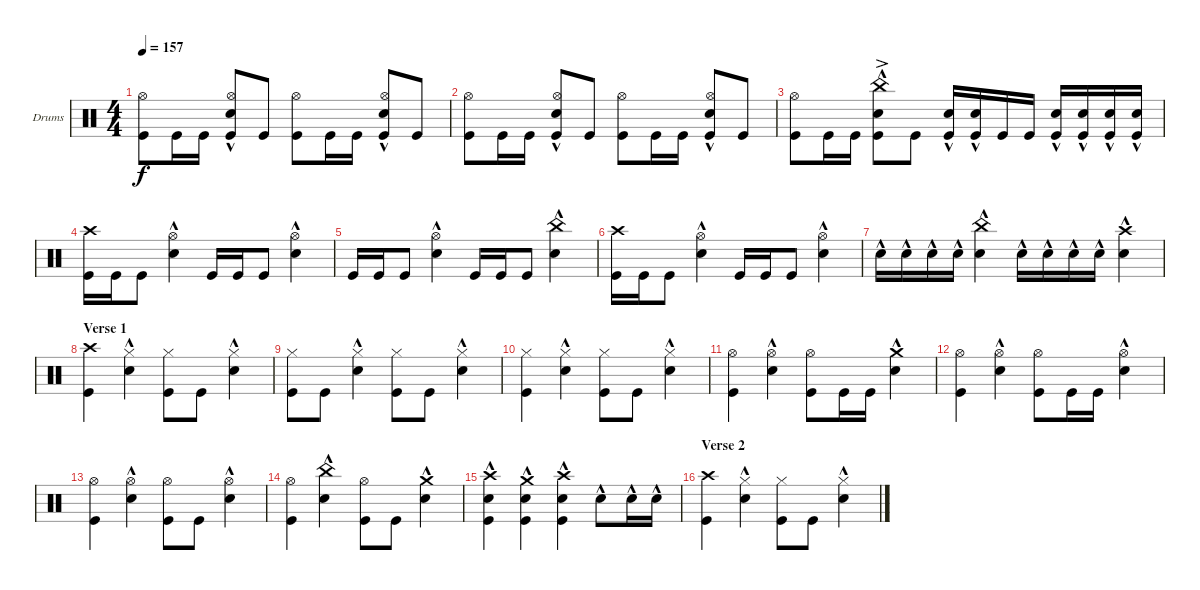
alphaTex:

\defaultSystemsLayout 4
\bracketExtendMode groupsimilarinstruments
\firstSystemTrackNameOrientation horizontal
\otherSystemsTrackNameOrientation horizontal
\track ("Drumkit - Natsu" "Drums") {instrument percussion}
\staff {score}
\articulation defaults
\ts (4 4)
\tempo 157
\clef neutral
\ks c
("Kick (hit)" "Hi-Hat (open)").8{dy f} "Kick (hit)".16 "Kick (hit)".16 ("Snare (hit) 2"{hac} "Hi-Hat (open)" "Kick (hit)").8 "Kick (hit)".8 ("Kick (hit)" "Hi-Hat (open)").8 "Kick (hit)".16 "Kick (hit)".16 ("Snare (hit) 2"{hac} "Hi-Hat (open)" "Kick (hit)").8 "Kick (hit)".8 |
("Kick (hit)" "Hi-Hat (open)").8 "Kick (hit)".16 "Kick (hit)".16 ("Snare (hit) 2"{hac} "Hi-Hat (open)" "Kick (hit)").8 "Kick (hit)".8 ("Kick (hit)" "Hi-Hat (open)").8 "Kick (hit)".16 "Kick (hit)".16 ("Snare (hit) 2"{hac} "Hi-Hat (open)" "Kick (hit)").8 "Kick (hit)".8 |
("Kick (hit)" "Hi-Hat (open)").8 "Kick (hit)".16 "Kick (hit)".16 ("Snare (hit) 2"{hac} "China (hit)"{ac} "Kick (hit)").8 "Kick (hit)".8 ("Snare (hit) 2"{hac} "Kick (hit)").16 ("Snare (hit) 2"{hac} "Kick (hit)").16 "Kick (hit)".16 "Kick (hit)".16 ("Snare (hit) 2"{hac} "Kick (hit)").16 ("Snare (hit) 2"{hac} "Kick (hit)").16 ("Snare (hit) 2"{hac} "Kick (hit)").16 ("Snare (hit) 2"{hac} "Kick (hit)").16 |
("Kick (hit)" "Crash high (hit)").16 "Kick (hit)".16 "Kick (hit)".8 ("Snare (hit) 2"{hac} "Hi-Hat (open)").4 "Kick (hit)".16 "Kick (hit)".16 "Kick (hit)".8 ("Snare (hit) 2"{hac} "Hi-Hat (open)").4 |
"Kick (hit)".16 "Kick (hit)".16 "Kick (hit)".8 ("Snare (hit) 2"{hac} "Hi-Hat (open)").4 "Kick (hit)".16 "Kick (hit)".16 "Kick (hit)".8 ("Snare (hit) 2"{hac} "China (hit)"{hac}).4 |
("Kick (hit)" "Crash high (hit)").16 "Kick (hit)".16 "Kick (hit)".8 ("Snare (hit) 2"{hac} "Hi-Hat (open)").4 "Kick (hit)".16 "Kick (hit)".16 "Kick (hit)".8 ("Snare (hit) 2"{hac} "Hi-Hat (open)").4 |
"Snare (hit) 2"{hac}.16 "Snare (hit) 2"{hac}.16 "Snare (hit) 2"{hac}.16 "Snare (hit) 2"{hac}.16 ("Snare (hit) 2"{hac} "China (hit)"{hac}).4 "Snare (hit) 2"{hac}.16 "Snare (hit) 2"{hac}.16 "Snare (hit) 2"{hac}.16 "Snare (hit) 2"{hac}.16 ("Snare (hit) 2"{hac} "Crash high (hit)").4 |
\section ("" "Verse 1")
("Crash high (hit)" "Kick (hit)").4 ("Snare (hit) 2"{hac} "Hi-Hat (closed)").4 ("Kick (hit)" "Hi-Hat (closed)").8 "Kick (hit)".8 ("Snare (hit) 2"{hac} "Hi-Hat (closed)").4 |
("Kick (hit)" "Hi-Hat (closed)").8 "Kick (hit)".8 ("Snare (hit) 2"{hac} "Hi-Hat (closed)").4 ("Kick (hit)" "Hi-Hat (closed)").8 "Kick (hit)".8 ("Snare (hit) 2"{hac} "Hi-Hat (closed)").4 |
("Kick (hit)" "Hi-Hat (closed)").4 ("Snare (hit) 2"{hac} "Hi-Hat (closed)").4 ("Kick (hit)" "Hi-Hat (closed)").8 "Kick (hit)".8 ("Snare (hit) 2"{hac} "Hi-Hat (closed)").4 |
("Kick (hit)" "Hi-Hat (open)").4 ("Snare (hit) 2"{hac} "Hi-Hat (open)").4 ("Kick (hit)" "Hi-Hat (open)").8 "Kick (hit)".16 "Kick (hit)".16 ("Snare (hit) 2"{hac} "Crash medium (hit)"{hac}).4 |
("Kick (hit)" "Hi-Hat (open)").4 ("Snare (hit) 2"{hac} "Hi-Hat (open)").4 ("Kick (hit)" "Hi-Hat (open)").8 "Kick (hit)".16 "Kick (hit)".16 ("Snare (hit) 2"{hac} "Hi-Hat (open)").4 |
("Kick (hit)" "Hi-Hat (open)").4 ("Snare (hit) 2"{hac} "Hi-Hat (open)").4 ("Kick (hit)" "Hi-Hat (open)").8 "Kick (hit)".8 ("Snare (hit) 2"{hac} "Hi-Hat (open)").4 |
("Kick (hit)" "Hi-Hat (open)").4 ("Snare (hit) 2"{hac} "China (hit)"{hac}).4 ("Kick (hit)" "Hi-Hat (open)").8 "Kick (hit)".8 ("Snare (hit) 2"{hac} "Crash medium (hit)"{hac}).4 |
("Snare (hit) 2"{hac} "Kick (hit)" "Crash high (hit)").4 ("Kick (hit)" "Snare (hit) 2"{hac} "Crash medium (hit)"{hac}).4 ("Snare (hit) 2"{hac} "Kick (hit)" "Crash high (hit)").4 "Snare (hit) 2"{hac}.8 "Snare (hit) 2"{hac}.16 "Snare (hit) 2"{hac}.16 |
\section ("" "Verse 2")
("Crash high (hit)" "Kick (hit)").4 ("Snare (hit) 2"{hac} "Hi-Hat (closed)").4 ("Kick (hit)" "Hi-Hat (closed)").8 "Kick (hit)".8 ("Snare (hit) 2"{hac} "Hi-Hat (closed)").4
